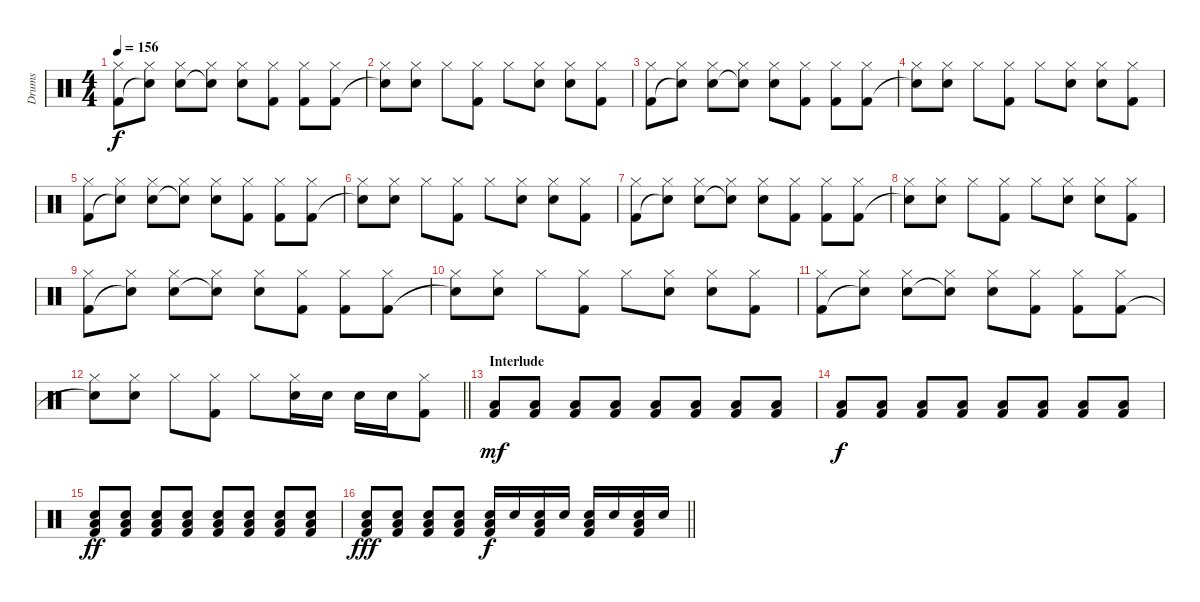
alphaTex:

\track ("Drums" "Drums") {instrument percussion}
\staff {score}
\articulation defaults
\ts (4 4)
\tempo 156
\clef neutral
\ks c
("Hi-Hat (closed)" "Kick (hit) 2").8{dy f} ("Hi-Hat (closed)" "Snare (hit)"{t}).8 ("Hi-Hat (closed)" "Electric Snare (hit)").8 ("Hi-Hat (closed)" "Snare (hit)"{t}).8 ("Hi-Hat (closed)" "Electric Snare (hit)").8 ("Hi-Hat (closed)" "Kick (hit) 2").8 ("Hi-Hat (closed)" "Kick (hit) 2").8 ("Hi-Hat (closed)" "Kick (hit) 2").8 |
("Hi-Hat (closed)" "Snare (hit)"{t}).8 ("Hi-Hat (closed)" "Electric Snare (hit)").8 "Hi-Hat (closed)".8 ("Hi-Hat (closed)" "Kick (hit) 2").8 "Hi-Hat (closed)".8 ("Hi-Hat (closed)" "Electric Snare (hit)").8 ("Hi-Hat (closed)" "Electric Snare (hit)").8 ("Hi-Hat (closed)" "Kick (hit) 2").8 |
("Hi-Hat (closed)" "Kick (hit) 2").8 ("Hi-Hat (closed)" "Snare (hit)"{t}).8 ("Hi-Hat (closed)" "Electric Snare (hit)").8 ("Hi-Hat (closed)" "Snare (hit)"{t}).8 ("Hi-Hat (closed)" "Electric Snare (hit)").8 ("Hi-Hat (closed)" "Kick (hit) 2").8 ("Hi-Hat (closed)" "Kick (hit) 2").8 ("Hi-Hat (closed)" "Kick (hit) 2").8 |
("Hi-Hat (closed)" "Snare (hit)"{t}).8 ("Hi-Hat (closed)" "Electric Snare (hit)").8 "Hi-Hat (closed)".8 ("Hi-Hat (closed)" "Kick (hit) 2").8 "Hi-Hat (closed)".8 ("Hi-Hat (closed)" "Electric Snare (hit)").8 ("Hi-Hat (closed)" "Electric Snare (hit)").8 ("Hi-Hat (closed)" "Kick (hit) 2").8 |
("Hi-Hat (closed)" "Kick (hit) 2").8 ("Hi-Hat (closed)" "Snare (hit)"{t}).8 ("Hi-Hat (closed)" "Electric Snare (hit)").8 ("Hi-Hat (closed)" "Snare (hit)"{t}).8 ("Hi-Hat (closed)" "Electric Snare (hit)").8 ("Hi-Hat (closed)" "Kick (hit) 2").8 ("Hi-Hat (closed)" "Kick (hit) 2").8 ("Hi-Hat (closed)" "Kick (hit) 2").8 |
("Hi-Hat (closed)" "Snare (hit)"{t}).8 ("Hi-Hat (closed)" "Electric Snare (hit)").8 "Hi-Hat (closed)".8 ("Hi-Hat (closed)" "Kick (hit) 2").8 "Hi-Hat (closed)".8 ("Hi-Hat (closed)" "Electric Snare (hit)").8 ("Hi-Hat (closed)" "Electric Snare (hit)").8 ("Hi-Hat (closed)" "Kick (hit) 2").8 |
("Hi-Hat (closed)" "Kick (hit) 2").8 ("Hi-Hat (closed)" "Snare (hit)"{t}).8 ("Hi-Hat (closed)" "Electric Snare (hit)").8 ("Hi-Hat (closed)" "Snare (hit)"{t}).8 ("Hi-Hat (closed)" "Electric Snare (hit)").8 ("Hi-Hat (closed)" "Kick (hit) 2").8 ("Hi-Hat (closed)" "Kick (hit) 2").8 ("Hi-Hat (closed)" "Kick (hit) 2").8 |
("Hi-Hat (closed)" "Snare (hit)"{t}).8 ("Hi-Hat (closed)" "Electric Snare (hit)").8 "Hi-Hat (closed)".8 ("Hi-Hat (closed)" "Kick (hit) 2").8 "Hi-Hat (closed)".8 ("Hi-Hat (closed)" "Electric Snare (hit)").8 ("Hi-Hat (closed)" "Electric Snare (hit)").8 ("Hi-Hat (closed)" "Kick (hit) 2").8 |
("Hi-Hat (closed)" "Kick (hit) 2").8 ("Hi-Hat (closed)" "Snare (hit)"{t}).8 ("Hi-Hat (closed)" "Electric Snare (hit)").8 ("Hi-Hat (closed)" "Snare (hit)"{t}).8 ("Hi-Hat (closed)" "Electric Snare (hit)").8 ("Hi-Hat (closed)" "Kick (hit) 2").8 ("Hi-Hat (closed)" "Kick (hit) 2").8 ("Hi-Hat (closed)" "Kick (hit) 2").8 |
("Hi-Hat (closed)" "Snare (hit)"{t}).8 ("Hi-Hat (closed)" "Electric Snare (hit)").8 "Hi-Hat (closed)".8 ("Hi-Hat (closed)" "Kick (hit) 2").8 "Hi-Hat (closed)".8 ("Hi-Hat (closed)" "Electric Snare (hit)").8 ("Hi-Hat (closed)" "Electric Snare (hit)").8 ("Hi-Hat (closed)" "Kick (hit) 2").8 |
("Hi-Hat (closed)" "Kick (hit) 2").8 ("Hi-Hat (closed)" "Snare (hit)"{t}).8 ("Hi-Hat (closed)" "Electric Snare (hit)").8 ("Hi-Hat (closed)" "Snare (hit)"{t}).8 ("Hi-Hat (closed)" "Electric Snare (hit)").8 ("Hi-Hat (closed)" "Kick (hit) 2").8 ("Hi-Hat (closed)" "Kick (hit) 2").8 ("Hi-Hat (closed)" "Kick (hit) 2").8 |
\barLineRight lightlight
("Hi-Hat (closed)" "Snare (hit)"{t}).8 ("Hi-Hat (closed)" "Electric Snare (hit)").8 "Hi-Hat (closed)".8 ("Hi-Hat (closed)" "Kick (hit) 2").8 "Hi-Hat (closed)".8 ("Hi-Hat (closed)" "Electric Snare (hit)").16 "Electric Snare (hit)".16 "Electric Snare (hit)".16 "Electric Snare (hit)".16 ("Hi-Hat (closed)" "Kick (hit) 2").8 |
\section ("" "Interlude")
("Low Floor Tom (hit)" "Kick (hit) 2").8{dy mf} ("Low Floor Tom (hit)" "Kick (hit) 2").8 ("Low Floor Tom (hit)" "Kick (hit) 2").8 ("Low Floor Tom (hit)" "Kick (hit) 2").8 ("Low Floor Tom (hit)" "Kick (hit) 2").8 ("Low Floor Tom (hit)" "Kick (hit) 2").8 ("Low Floor Tom (hit)" "Kick (hit) 2").8 ("Low Floor Tom (hit)" "Kick (hit) 2").8 |
("Low Floor Tom (hit)" "Kick (hit) 2").8{dy f} ("Low Floor Tom (hit)" "Kick (hit) 2").8 ("Low Floor Tom (hit)" "Kick (hit) 2").8 ("Low Floor Tom (hit)" "Kick (hit) 2").8 ("Low Floor Tom (hit)" "Kick (hit) 2").8 ("Low Floor Tom (hit)" "Kick (hit) 2").8 ("Low Floor Tom (hit)" "Kick (hit) 2").8 ("Low Floor Tom (hit)" "Kick (hit) 2").8 |
("Electric Snare (hit)" "Low Floor Tom (hit)" "Kick (hit) 2").8{dy ff} ("Electric Snare (hit)" "Low Floor Tom (hit)" "Kick (hit) 2").8 ("Electric Snare (hit)" "Low Floor Tom (hit)" "Kick (hit) 2").8 ("Electric Snare (hit)" "Low Floor Tom (hit)" "Kick (hit) 2").8 ("Electric Snare (hit)" "Low Floor Tom (hit)" "Kick (hit) 2").8 ("Electric Snare (hit)" "Low Floor Tom (hit)" "Kick (hit) 2").8 ("Electric Snare (hit)" "Low Floor Tom (hit)" "Kick (hit) 2").8 ("Electric Snare (hit)" "Low Floor Tom (hit)" "Kick (hit) 2").8 |
\barLineRight lightlight
("Electric Snare (hit)" "Low Floor Tom (hit)" "Kick (hit) 2").8{dy fff} ("Electric Snare (hit)" "Low Floor Tom (hit)" "Kick (hit) 2").8 ("Electric Snare (hit)" "Low Floor Tom (hit)" "Kick (hit) 2").8 ("Electric Snare (hit)" "Low Floor Tom (hit)" "Kick (hit) 2").8 ("Low Floor Tom (hit)" "Electric Snare (hit)" "Kick (hit) 2").16{dy f} "Electric Snare (hit)".16 ("Low Floor Tom (hit)" "Electric Snare (hit)" "Kick (hit) 2").16 "Electric Snare (hit)".16 ("Low Floor Tom (hit)" "Electric Snare (hit)" "Kick (hit) 2").16 "Electric Snare (hit)".16 ("Low Floor Tom (hit)" "Electric Snare (hit)" "Kick (hit) 2").16 "Electric Snare (hit)".16
